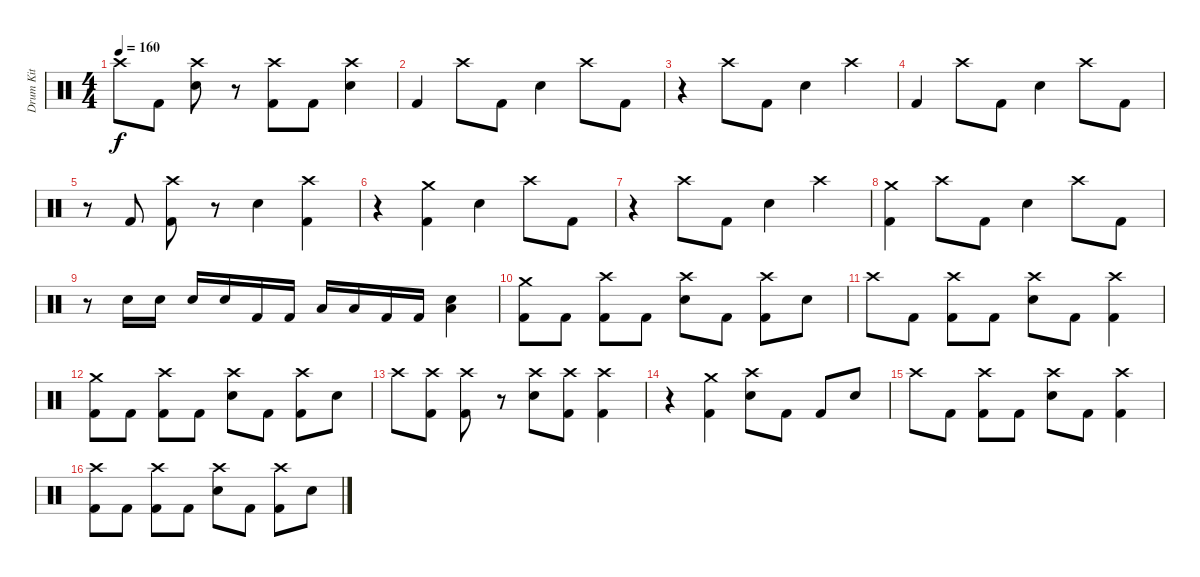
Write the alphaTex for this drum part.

\track ("Drum Kit" "Drum Kit") {instrument percussion}
\staff {score}
\articulation defaults
\ts (4 4)
\tempo 160
\clef neutral
\ks c "Crash high (hit)".8{dy f} "Kick (hit) 2".8
("Crash high (hit)" "Electric Snare (hit)").8 r.8 ("Crash high (hit)" "Kick (hit) 2").8 "Kick (hit) 2".8 ("Crash high (hit)" "Electric Snare (hit)").4 |
"Kick (hit) 2".4 "Crash high (hit)".8 "Kick (hit) 2".8 "Electric Snare (hit)".4 "Crash high (hit)".8 "Kick (hit) 2".8 |
r.4 "Crash high (hit)".8 "Kick (hit) 2".8 "Electric Snare (hit)".4 "Crash high (hit)".4 |
"Kick (hit) 2".4 "Crash high (hit)".8 "Kick (hit) 2".8 "Electric Snare (hit)".4 "Crash high (hit)".8 "Kick (hit) 2".8 |
r.8 "Kick (hit) 2".8 ("Crash high (hit)" "Kick (hit) 2").8 r.8 "Electric Snare (hit)".4 ("Crash high (hit)" "Kick (hit) 2").4 |
r.4 ("Crash medium (hit)" "Kick (hit) 2").4 "Electric Snare (hit)".4 "Crash high (hit)".8 "Kick (hit) 2".8 |
r.4 "Crash high (hit)".8 "Kick (hit) 2".8 "Electric Snare (hit)".4 "Crash high (hit)".4 |
("Crash medium (hit)" "Kick (hit) 2").4 "Crash high (hit)".8 "Kick (hit) 2".8 "Electric Snare (hit)".4 "Crash high (hit)".8 "Kick (hit) 2".8 |
r.8 "Electric Snare (hit)".16 "Electric Snare (hit)".16 "Electric Snare (hit)".16 "Electric Snare (hit)".16 "Kick (hit) 2".16 "Kick (hit) 2".16 "Low Tom (hit)".16 "Low Tom (hit)".16 "Kick (hit) 2".16 "Kick (hit) 2".16 ("Low Floor Tom (hit)" "Electric Snare (hit)").4 |
("Crash medium (hit)" "Kick (hit) 2").8 "Kick (hit) 2".8 ("Crash high (hit)" "Kick (hit) 2").8 "Kick (hit) 2".8 ("Crash high (hit)" "Electric Snare (hit)").8 "Kick (hit) 2".8 ("Crash high (hit)" "Kick (hit) 2").8 "Electric Snare (hit)".8 |
"Crash high (hit)".8 "Kick (hit) 2".8 ("Crash high (hit)" "Kick (hit) 2").8 "Kick (hit) 2".8 ("Crash high (hit)" "Electric Snare (hit)").8 "Kick (hit) 2".8 ("Crash high (hit)" "Kick (hit) 2").4 |
("Crash medium (hit)" "Kick (hit) 2").8 "Kick (hit) 2".8 ("Crash high (hit)" "Kick (hit) 2").8 "Kick (hit) 2".8 ("Crash high (hit)" "Electric Snare (hit)").8 "Kick (hit) 2".8 ("Crash high (hit)" "Kick (hit) 2").8 "Electric Snare (hit)".8 |
"Crash high (hit)".8 ("Crash high (hit)" "Kick (hit) 2").8 ("Crash high (hit)" "Kick (hit) 2").8 r.8 ("Crash high (hit)" "Electric Snare (hit)").8 ("Crash high (hit)" "Kick (hit) 2").8 ("Crash high (hit)" "Kick (hit) 2").4 |
r.4 ("Crash medium (hit)" "Kick (hit) 2").4 ("Crash high (hit)" "Electric Snare (hit)").8 "Kick (hit) 2".8 "Kick (hit) 2".8 "Electric Snare (hit)".8 |
"Crash high (hit)".8 "Kick (hit) 2".8 ("Crash high (hit)" "Kick (hit) 2").8 "Kick (hit) 2".8 ("Crash high (hit)" "Electric Snare (hit)").8 "Kick (hit) 2".8 ("Crash high (hit)" "Kick (hit) 2").4 |
("Crash high (hit)" "Kick (hit) 2").8 "Kick (hit) 2".8 ("Crash high (hit)" "Kick (hit) 2").8 "Kick (hit) 2".8 ("Crash high (hit)" "Electric Snare (hit)").8 "Kick (hit) 2".8 ("Crash high (hit)" "Kick (hit) 2").8 "Electric Snare (hit)".8
